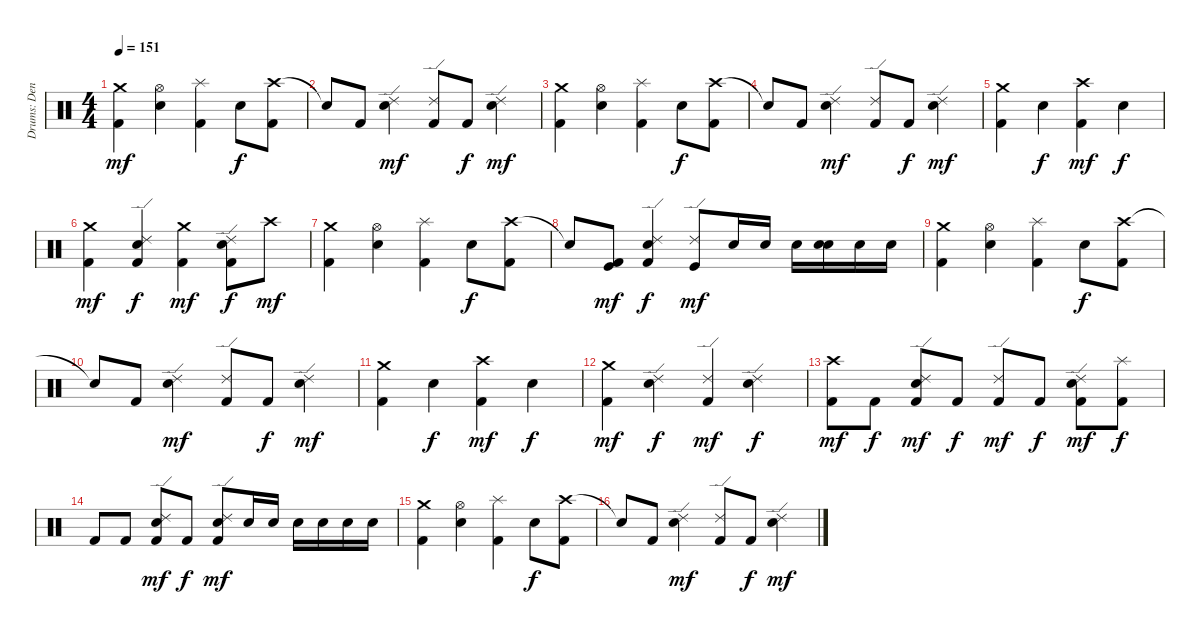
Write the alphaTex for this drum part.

\track ("Drums: Denny Carmassi" "Drums: Den") {instrument percussion}
\staff {score}
\articulation defaults
\ts (4 4)
\tempo 151
\clef neutral
\ks c
("Crash medium (hit)" "Kick (hit) 2").4{dy mf} ("Hi-Hat (open)" "Snare (hit) 2").4 ("Splash (hit)" "Kick (hit) 2").4 "Snare (hit) 2".8{dy f} ("Crash high (hit)" "Kick (hit) 2").8 |
"Snare (hit)"{t}.8 "Kick (hit) 2".8 ("Ride (edge) 2" "Snare (hit) 2").4{dy mf} ("Ride (edge) 2" "Kick (hit) 2").8 "Kick (hit) 2".8{dy f} ("Ride (edge) 2" "Snare (hit) 2").4{dy mf} |
("Crash medium (hit)" "Kick (hit) 2").4 ("Hi-Hat (open)" "Snare (hit) 2").4 ("Splash (hit)" "Kick (hit) 2").4 "Snare (hit) 2".8{dy f} ("Crash high (hit)" "Kick (hit) 2").8 |
"Snare (hit)"{t}.8 "Kick (hit) 2".8 ("Ride (edge) 2" "Snare (hit) 2").4{dy mf} ("Ride (edge) 2" "Kick (hit) 2").8 "Kick (hit) 2".8{dy f} ("Ride (edge) 2" "Snare (hit) 2").4{dy mf} |
("Crash medium (hit)" "Kick (hit) 2").4 "Snare (hit) 2".4{dy f} ("Crash high (hit)" "Kick (hit) 2").4{dy mf} "Snare (hit) 2".4{dy f} |
("Crash medium (hit)" "Kick (hit) 2").4{dy mf} ("Ride (edge) 2" "Snare (hit) 2" "Kick (hit) 2").4{dy f} ("Crash medium (hit)" "Kick (hit) 2").4{dy mf} ("Ride (edge) 2" "Snare (hit) 2" "Kick (hit) 2").8{dy f} "Crash high (hit)".8{dy mf} |
("Crash medium (hit)" "Kick (hit) 2").4 ("Hi-Hat (open)" "Snare (hit) 2").4 ("Splash (hit)" "Kick (hit) 2").4 "Snare (hit) 2".8{dy f} ("Crash high (hit)" "Kick (hit) 2").8 |
"Snare (hit)"{t}.8 ("Kick (hit)" "Kick (hit) 2").8{dy mf} ("Ride (edge) 2" "Snare (hit) 2" "Kick (hit) 2").4{dy f} ("Kick (hit)" "Ride (edge) 2").8{dy mf} "Snare (hit) 2".16 "Snare (hit) 2".16 "Snare (hit) 2".16 ("Snare (hit) 2" "Snare (hit) 2").16 "Snare (hit) 2".16 "Snare (hit) 2".16 |
("Crash medium (hit)" "Kick (hit) 2").4 ("Hi-Hat (open)" "Snare (hit) 2").4 ("Splash (hit)" "Kick (hit) 2").4 "Snare (hit) 2".8{dy f} ("Crash high (hit)" "Kick (hit) 2").8 |
"Snare (hit)"{t}.8 "Kick (hit) 2".8 ("Ride (edge) 2" "Snare (hit) 2").4{dy mf} ("Ride (edge) 2" "Kick (hit) 2").8 "Kick (hit) 2".8{dy f} ("Ride (edge) 2" "Snare (hit) 2").4{dy mf} |
("Crash medium (hit)" "Kick (hit) 2").4 "Snare (hit) 2".4{dy f} ("Crash high (hit)" "Kick (hit) 2").4{dy mf} "Snare (hit) 2".4{dy f} |
("Crash medium (hit)" "Kick (hit) 2").4{dy mf} ("Ride (edge) 2" "Snare (hit) 2").4{dy f} ("Ride (edge) 2" "Kick (hit) 2").4{dy mf} ("Ride (edge) 2" "Snare (hit) 2").4{dy f} |
("Crash high (hit)" "Kick (hit) 2").8{dy mf} "Kick (hit) 2".8{dy f} ("Ride (edge) 2" "Snare (hit) 2" "Kick (hit) 2").8{dy mf} "Kick (hit) 2".8{dy f} ("Ride (edge) 2" "Kick (hit) 2").8{dy mf} "Kick (hit) 2".8{dy f} ("Ride (edge) 2" "Snare (hit) 2" "Kick (hit) 2").8{dy mf} ("Splash (hit)" "Kick (hit) 2").8{dy f} |
"Kick (hit) 2".8 "Kick (hit) 2".8 ("Ride (edge) 2" "Snare (hit) 2" "Kick (hit) 2").8{dy mf} "Kick (hit) 2".8{dy f} ("Ride (edge) 2" "Snare (hit) 2" "Kick (hit) 2").8{dy mf} "Snare (hit) 2".16 "Snare (hit) 2".16 "Snare (hit) 2".16 "Snare (hit) 2".16 "Snare (hit) 2".16 "Snare (hit) 2".16 |
("Crash medium (hit)" "Kick (hit) 2").4 ("Hi-Hat (open)" "Snare (hit) 2").4 ("Splash (hit)" "Kick (hit) 2").4 "Snare (hit) 2".8{dy f} ("Crash high (hit)" "Kick (hit) 2").8 |
"Snare (hit)"{t}.8 "Kick (hit) 2".8 ("Ride (edge) 2" "Snare (hit) 2").4{dy mf} ("Ride (edge) 2" "Kick (hit) 2").8 "Kick (hit) 2".8{dy f} ("Ride (edge) 2" "Snare (hit) 2").4{dy mf}
